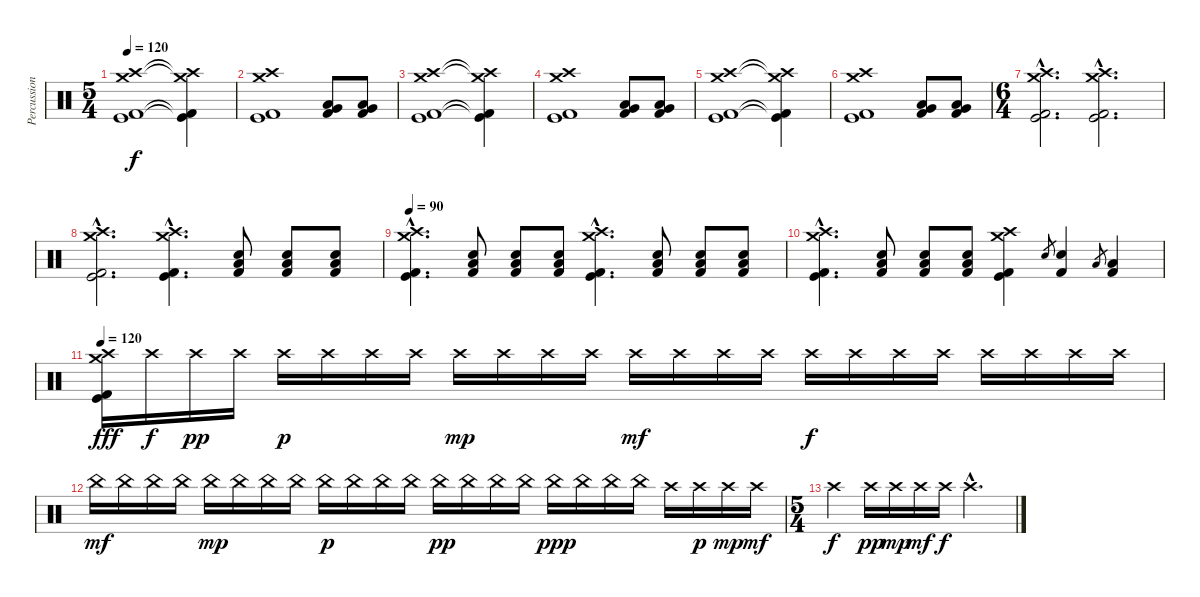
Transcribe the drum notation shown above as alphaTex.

\track ("Percussion" "Percussion") {instrument percussion}
\staff {score}
\articulation defaults
\ts (5 4)
\tempo 120
\clef neutral
\ks c
("Crash high (hit)" "Crash medium (hit)" "Kick (hit) 2" "Kick (hit)").1{dy f} ("Crash high (hit)"{t} "Crash medium (hit)"{t} "Kick (hit) 2"{t} "Kick (hit)"{t}).4 |
("Crash high (hit)" "Crash medium (hit)" "Kick (hit) 2" "Kick (hit)").1 ("Low Tom (hit)" "Very Low Tom (hit)" "Kick (hit) 2").8 ("Low Tom (hit)" "Very Low Tom (hit)" "Kick (hit) 2").8 |
("Crash high (hit)" "Crash medium (hit)" "Kick (hit) 2" "Kick (hit)").1 ("Crash high (hit)"{t} "Crash medium (hit)"{t} "Kick (hit) 2"{t} "Kick (hit)"{t}).4 |
("Crash high (hit)" "Crash medium (hit)" "Kick (hit) 2" "Kick (hit)").1 ("Low Tom (hit)" "Very Low Tom (hit)" "Kick (hit) 2").8 ("Low Tom (hit)" "Very Low Tom (hit)" "Kick (hit) 2").8 |
("Crash high (hit)" "Crash medium (hit)" "Kick (hit) 2" "Kick (hit)").1 ("Crash high (hit)"{t} "Crash medium (hit)"{t} "Kick (hit) 2"{t} "Kick (hit)"{t}).4 |
("Crash high (hit)" "Crash medium (hit)" "Kick (hit) 2" "Kick (hit)").1 ("Low Tom (hit)" "Very Low Tom (hit)" "Kick (hit) 2").8 ("Low Tom (hit)" "Very Low Tom (hit)" "Kick (hit) 2").8 |
\ts (6 4)
("Crash high (hit)"{hac} "Crash medium (hit)"{hac} "Kick (hit) 2"{hac} "Kick (hit)"{hac}).2{d} ("Crash high (hit)"{hac} "Crash medium (hit)"{hac} "Kick (hit) 2"{hac} "Kick (hit)"{hac}).2{d} |
("Crash high (hit)"{hac} "Crash medium (hit)"{hac} "Kick (hit) 2"{hac} "Kick (hit)"{hac}).2{d} ("Crash high (hit)"{hac} "Crash medium (hit)"{hac} "Kick (hit) 2"{hac} "Kick (hit)"{hac}).4{d} ("Low Tom (hit)" "Electric Snare (hit)" "Kick (hit) 2").8 ("Low Tom (hit)" "Electric Snare (hit)" "Kick (hit) 2").8 ("Low Tom (hit)" "Electric Snare (hit)" "Kick (hit) 2").8 |
\tempo 90
("Crash high (hit)"{hac} "Crash medium (hit)"{hac} "Kick (hit) 2"{hac} "Kick (hit)"{hac}).4{d} ("Low Tom (hit)" "Electric Snare (hit)" "Kick (hit) 2").8 ("Low Tom (hit)" "Electric Snare (hit)" "Kick (hit) 2").8 ("Low Tom (hit)" "Electric Snare (hit)" "Kick (hit) 2").8 ("Crash high (hit)"{hac} "Crash medium (hit)"{hac} "Kick (hit) 2"{hac} "Kick (hit)"{hac}).4{d} ("Low Tom (hit)" "Electric Snare (hit)" "Kick (hit) 2").8 ("Low Tom (hit)" "Electric Snare (hit)" "Kick (hit) 2").8 ("Low Tom (hit)" "Electric Snare (hit)" "Kick (hit) 2").8 |
("Crash high (hit)"{hac} "Crash medium (hit)"{hac} "Kick (hit) 2"{hac} "Kick (hit)"{hac}).4{d} ("Low Tom (hit)" "Electric Snare (hit)" "Kick (hit) 2").8 ("Low Tom (hit)" "Electric Snare (hit)" "Kick (hit) 2").8 ("Low Tom (hit)" "Electric Snare (hit)" "Kick (hit) 2").8 ("Crash high (hit)" "Crash medium (hit)" "Kick (hit) 2" "Kick (hit)").4 "Electric Snare (hit)".8{gr} ("Electric Snare (hit)" "Kick (hit) 2").4 "Low Tom (hit)".8{gr} ("Low Tom (hit)" "Kick (hit) 2").4 |
\tempo 120
("Crash high (hit)" "Crash medium (hit)" "Kick (hit) 2" "Kick (hit)").16{dy fff} "Crash high (hit)".16{dy f} "Crash high (hit)".16{dy pp} "Crash high (hit)".16 "Crash high (hit)".16{dy p} "Crash high (hit)".16 "Crash high (hit)".16 "Crash high (hit)".16 "Crash high (hit)".16{dy mp} "Crash high (hit)".16 "Crash high (hit)".16 "Crash high (hit)".16 "Crash high (hit)".16{dy mf} "Crash high (hit)".16 "Crash high (hit)".16 "Crash high (hit)".16 "Crash high (hit)".16{dy f} "Crash high (hit)".16 "Crash high (hit)".16 "Crash high (hit)".16 "Crash high (hit)".16 "Crash high (hit)".16 "Crash high (hit)".16 "Crash high (hit)".16 |
"China (hit)".16{dy mf} "China (hit)".16 "China (hit)".16 "China (hit)".16 "China (hit)".16{dy mp} "China (hit)".16 "China (hit)".16 "China (hit)".16 "China (hit)".16{dy p} "China (hit)".16 "China (hit)".16 "China (hit)".16 "China (hit)".16{dy pp} "China (hit)".16 "China (hit)".16 "China (hit)".16 "China (hit)".16{dy ppp} "China (hit)".16 "China (hit)".16 "China (hit)".16 "Crash high (hit)".16 "Crash high (hit)".16{dy p} "Crash high (hit)".16{dy mp} "Crash high (hit)".16{dy mf} |
\ts (5 4)
"Crash high (hit)".4{dy f} "Crash high (hit)".16{dy pp} "Crash high (hit)".16{dy mp} "Crash high (hit)".16{dy mf} "Crash high (hit)".16{dy f} "Crash high (hit)"{hac}.2{d}
